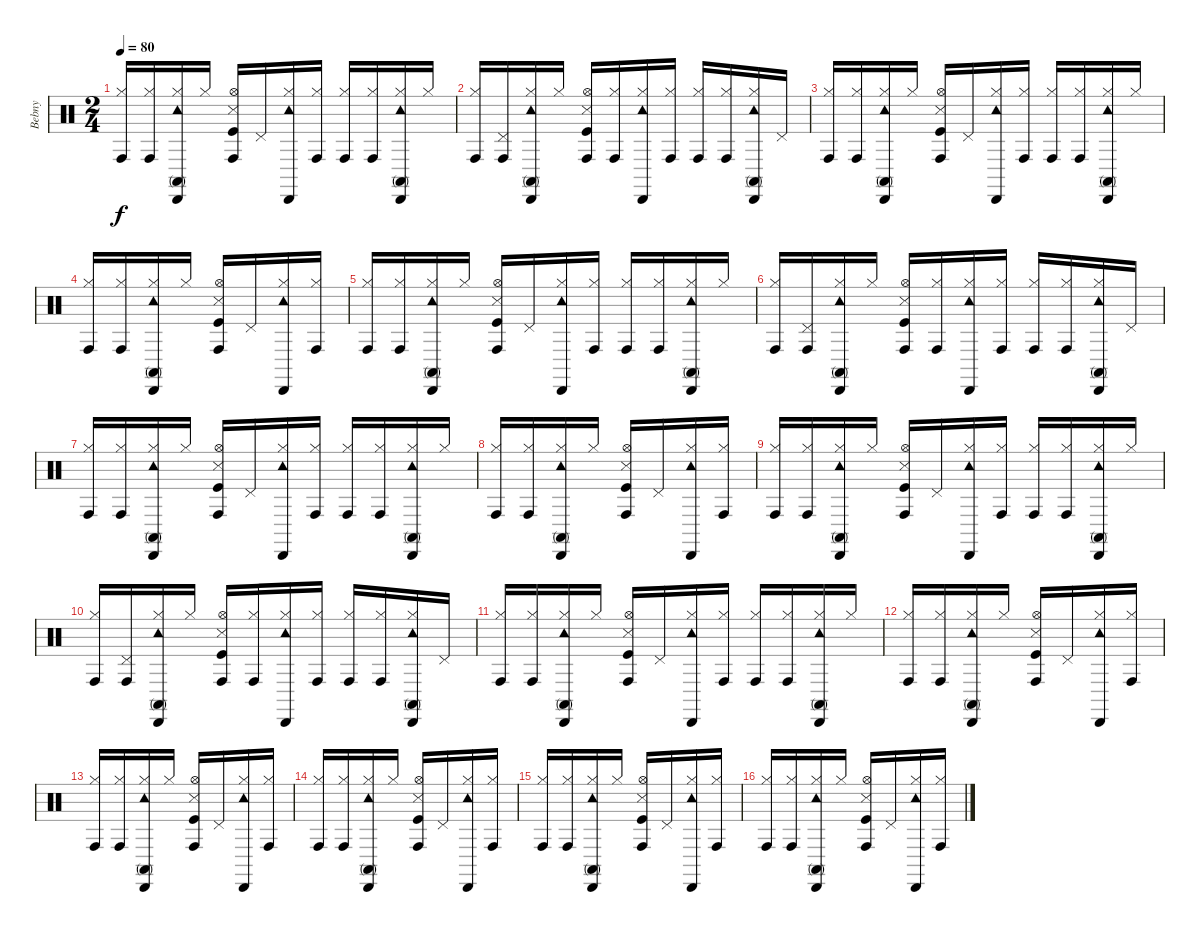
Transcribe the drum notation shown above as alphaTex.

\track ("Bebny" "Bebny") {instrument percussion}
\staff {score}
\articulation defaults
\ts (2 4)
\tempo 80
\clef neutral
\ks c
("Conga high (hit)" "Hi-Hat (closed)").16{dy f} ("Conga high (hit)" "Hi-Hat (closed)").16 ("Cabasa (hit)" "Tambourine (hit)" "Conga high (mute)" "Hi-Hat (closed)").16 "Hi-Hat (closed)".16 ("Conga high (hit)" "Hi-Hat (open)" "Snare (side stick) 3" "Kick (hit)").16 "Pedal Hi-Hat (hit)".16 ("Cabasa (hit)" "Tambourine (hit)" "Hi-Hat (closed)").16 ("Conga high (hit)" "Hi-Hat (closed)").16 ("Conga high (hit)" "Hi-Hat (closed)").16 ("Conga high (hit)" "Hi-Hat (closed)").16 ("Cabasa (hit)" "Tambourine (hit)" "Conga high (mute)" "Hi-Hat (closed)").16 "Hi-Hat (closed)".16 |
("Conga high (hit)" "Hi-Hat (closed)").16 ("Conga high (hit)" "Pedal Hi-Hat (hit)").16 ("Cabasa (hit)" "Tambourine (hit)" "Conga high (mute)" "Hi-Hat (closed)").16 "Hi-Hat (closed)".16 ("Conga high (hit)" "Hi-Hat (open)" "Snare (side stick) 3" "Kick (hit)").16 ("Conga high (hit)" "Hi-Hat (closed)").16 ("Cabasa (hit)" "Tambourine (hit)" "Hi-Hat (closed)").16 ("Conga high (hit)" "Hi-Hat (closed)").16 ("Conga high (hit)" "Hi-Hat (closed)").16 ("Conga high (hit)" "Hi-Hat (closed)").16 ("Cabasa (hit)" "Tambourine (hit)" "Conga high (mute)" "Hi-Hat (closed)").16 "Pedal Hi-Hat (hit)".16 |
("Conga high (hit)" "Hi-Hat (closed)").16 ("Conga high (hit)" "Hi-Hat (closed)").16 ("Cabasa (hit)" "Tambourine (hit)" "Conga high (mute)" "Hi-Hat (closed)").16 "Hi-Hat (closed)".16 ("Conga high (hit)" "Hi-Hat (open)" "Snare (side stick) 3" "Kick (hit)").16 "Pedal Hi-Hat (hit)".16 ("Cabasa (hit)" "Tambourine (hit)" "Hi-Hat (closed)").16 ("Conga high (hit)" "Hi-Hat (closed)").16 ("Conga high (hit)" "Hi-Hat (closed)").16 ("Conga high (hit)" "Hi-Hat (closed)").16 ("Cabasa (hit)" "Tambourine (hit)" "Conga high (mute)" "Hi-Hat (closed)").16 "Hi-Hat (closed)".16 |
("Conga high (hit)" "Hi-Hat (closed)").16 ("Conga high (hit)" "Hi-Hat (closed)").16 ("Cabasa (hit)" "Tambourine (hit)" "Conga high (mute)" "Hi-Hat (closed)").16 "Hi-Hat (closed)".16 ("Conga high (hit)" "Hi-Hat (open)" "Snare (side stick) 3" "Kick (hit)").16 "Pedal Hi-Hat (hit)".16 ("Cabasa (hit)" "Tambourine (hit)" "Hi-Hat (closed)").16 ("Conga high (hit)" "Hi-Hat (closed)").16 |
("Conga high (hit)" "Hi-Hat (closed)").16 ("Conga high (hit)" "Hi-Hat (closed)").16 ("Cabasa (hit)" "Tambourine (hit)" "Conga high (mute)" "Hi-Hat (closed)").16 "Hi-Hat (closed)".16 ("Conga high (hit)" "Hi-Hat (open)" "Snare (side stick) 3" "Kick (hit)").16 "Pedal Hi-Hat (hit)".16 ("Cabasa (hit)" "Tambourine (hit)" "Hi-Hat (closed)").16 ("Conga high (hit)" "Hi-Hat (closed)").16 ("Conga high (hit)" "Hi-Hat (closed)").16 ("Conga high (hit)" "Hi-Hat (closed)").16 ("Cabasa (hit)" "Tambourine (hit)" "Conga high (mute)" "Hi-Hat (closed)").16 "Hi-Hat (closed)".16 |
("Conga high (hit)" "Hi-Hat (closed)").16 ("Conga high (hit)" "Pedal Hi-Hat (hit)").16 ("Cabasa (hit)" "Tambourine (hit)" "Conga high (mute)" "Hi-Hat (closed)").16 "Hi-Hat (closed)".16 ("Conga high (hit)" "Hi-Hat (open)" "Snare (side stick) 3" "Kick (hit)").16 ("Conga high (hit)" "Hi-Hat (closed)").16 ("Cabasa (hit)" "Tambourine (hit)" "Hi-Hat (closed)").16 ("Conga high (hit)" "Hi-Hat (closed)").16 ("Conga high (hit)" "Hi-Hat (closed)").16 ("Conga high (hit)" "Hi-Hat (closed)").16 ("Cabasa (hit)" "Tambourine (hit)" "Conga high (mute)" "Hi-Hat (closed)").16 "Pedal Hi-Hat (hit)".16 |
("Conga high (hit)" "Hi-Hat (closed)").16 ("Conga high (hit)" "Hi-Hat (closed)").16 ("Cabasa (hit)" "Tambourine (hit)" "Conga high (mute)" "Hi-Hat (closed)").16 "Hi-Hat (closed)".16 ("Conga high (hit)" "Hi-Hat (open)" "Snare (side stick) 3" "Kick (hit)").16 "Pedal Hi-Hat (hit)".16 ("Cabasa (hit)" "Tambourine (hit)" "Hi-Hat (closed)").16 ("Conga high (hit)" "Hi-Hat (closed)").16 ("Conga high (hit)" "Hi-Hat (closed)").16 ("Conga high (hit)" "Hi-Hat (closed)").16 ("Cabasa (hit)" "Tambourine (hit)" "Conga high (mute)" "Hi-Hat (closed)").16 "Hi-Hat (closed)".16 |
("Conga high (hit)" "Hi-Hat (closed)").16 ("Conga high (hit)" "Hi-Hat (closed)").16 ("Cabasa (hit)" "Tambourine (hit)" "Conga high (mute)" "Hi-Hat (closed)").16 "Hi-Hat (closed)".16 ("Conga high (hit)" "Hi-Hat (open)" "Snare (side stick) 3" "Kick (hit)").16 "Pedal Hi-Hat (hit)".16 ("Cabasa (hit)" "Tambourine (hit)" "Hi-Hat (closed)").16 ("Conga high (hit)" "Hi-Hat (closed)").16 |
("Conga high (hit)" "Hi-Hat (closed)").16 ("Conga high (hit)" "Hi-Hat (closed)").16 ("Cabasa (hit)" "Tambourine (hit)" "Conga high (mute)" "Hi-Hat (closed)").16 "Hi-Hat (closed)".16 ("Conga high (hit)" "Hi-Hat (open)" "Snare (side stick) 3" "Kick (hit)").16 "Pedal Hi-Hat (hit)".16 ("Cabasa (hit)" "Tambourine (hit)" "Hi-Hat (closed)").16 ("Conga high (hit)" "Hi-Hat (closed)").16 ("Conga high (hit)" "Hi-Hat (closed)").16 ("Conga high (hit)" "Hi-Hat (closed)").16 ("Cabasa (hit)" "Tambourine (hit)" "Conga high (mute)" "Hi-Hat (closed)").16 "Hi-Hat (closed)".16 |
("Conga high (hit)" "Hi-Hat (closed)").16 ("Conga high (hit)" "Pedal Hi-Hat (hit)").16 ("Cabasa (hit)" "Tambourine (hit)" "Conga high (mute)" "Hi-Hat (closed)").16 "Hi-Hat (closed)".16 ("Conga high (hit)" "Hi-Hat (open)" "Snare (side stick) 3" "Kick (hit)").16 ("Conga high (hit)" "Hi-Hat (closed)").16 ("Cabasa (hit)" "Tambourine (hit)" "Hi-Hat (closed)").16 ("Conga high (hit)" "Hi-Hat (closed)").16 ("Conga high (hit)" "Hi-Hat (closed)").16 ("Conga high (hit)" "Hi-Hat (closed)").16 ("Cabasa (hit)" "Tambourine (hit)" "Conga high (mute)" "Hi-Hat (closed)").16 "Pedal Hi-Hat (hit)".16 |
("Conga high (hit)" "Hi-Hat (closed)").16 ("Conga high (hit)" "Hi-Hat (closed)").16 ("Cabasa (hit)" "Tambourine (hit)" "Conga high (mute)" "Hi-Hat (closed)").16 "Hi-Hat (closed)".16 ("Conga high (hit)" "Hi-Hat (open)" "Snare (side stick) 3" "Kick (hit)").16 "Pedal Hi-Hat (hit)".16 ("Cabasa (hit)" "Tambourine (hit)" "Hi-Hat (closed)").16 ("Conga high (hit)" "Hi-Hat (closed)").16 ("Conga high (hit)" "Hi-Hat (closed)").16 ("Conga high (hit)" "Hi-Hat (closed)").16 ("Cabasa (hit)" "Tambourine (hit)" "Conga high (mute)" "Hi-Hat (closed)").16 "Hi-Hat (closed)".16 |
("Conga high (hit)" "Hi-Hat (closed)").16 ("Conga high (hit)" "Hi-Hat (closed)").16 ("Cabasa (hit)" "Tambourine (hit)" "Conga high (mute)" "Hi-Hat (closed)").16 "Hi-Hat (closed)".16 ("Conga high (hit)" "Hi-Hat (open)" "Snare (side stick) 3" "Kick (hit)").16 "Pedal Hi-Hat (hit)".16 ("Cabasa (hit)" "Tambourine (hit)" "Hi-Hat (closed)").16 ("Conga high (hit)" "Hi-Hat (closed)").16 |
("Conga high (hit)" "Hi-Hat (closed)").16 ("Conga high (hit)" "Hi-Hat (closed)").16 ("Cabasa (hit)" "Tambourine (hit)" "Conga high (mute)" "Hi-Hat (closed)").16 "Hi-Hat (closed)".16 ("Conga high (hit)" "Hi-Hat (open)" "Snare (side stick) 3" "Kick (hit)").16 "Pedal Hi-Hat (hit)".16 ("Cabasa (hit)" "Tambourine (hit)" "Hi-Hat (closed)").16 ("Conga high (hit)" "Hi-Hat (closed)").16 |
("Conga high (hit)" "Hi-Hat (closed)").16 ("Conga high (hit)" "Hi-Hat (closed)").16 ("Cabasa (hit)" "Tambourine (hit)" "Conga high (mute)" "Hi-Hat (closed)").16 "Hi-Hat (closed)".16 ("Conga high (hit)" "Hi-Hat (open)" "Snare (side stick) 3" "Kick (hit)").16 "Pedal Hi-Hat (hit)".16 ("Cabasa (hit)" "Tambourine (hit)" "Hi-Hat (closed)").16 ("Conga high (hit)" "Hi-Hat (closed)").16 |
("Conga high (hit)" "Hi-Hat (closed)").16 ("Conga high (hit)" "Hi-Hat (closed)").16 ("Cabasa (hit)" "Tambourine (hit)" "Conga high (mute)" "Hi-Hat (closed)").16 "Hi-Hat (closed)".16 ("Conga high (hit)" "Hi-Hat (open)" "Snare (side stick) 3" "Kick (hit)").16 "Pedal Hi-Hat (hit)".16 ("Cabasa (hit)" "Tambourine (hit)" "Hi-Hat (closed)").16 ("Conga high (hit)" "Hi-Hat (closed)").16 |
("Conga high (hit)" "Hi-Hat (closed)").16 ("Conga high (hit)" "Hi-Hat (closed)").16 ("Cabasa (hit)" "Tambourine (hit)" "Conga high (mute)" "Hi-Hat (closed)").16 "Hi-Hat (closed)".16 ("Conga high (hit)" "Hi-Hat (open)" "Snare (side stick) 3" "Kick (hit)").16 "Pedal Hi-Hat (hit)".16 ("Cabasa (hit)" "Tambourine (hit)" "Hi-Hat (closed)").16 ("Conga high (hit)" "Hi-Hat (closed)").16
